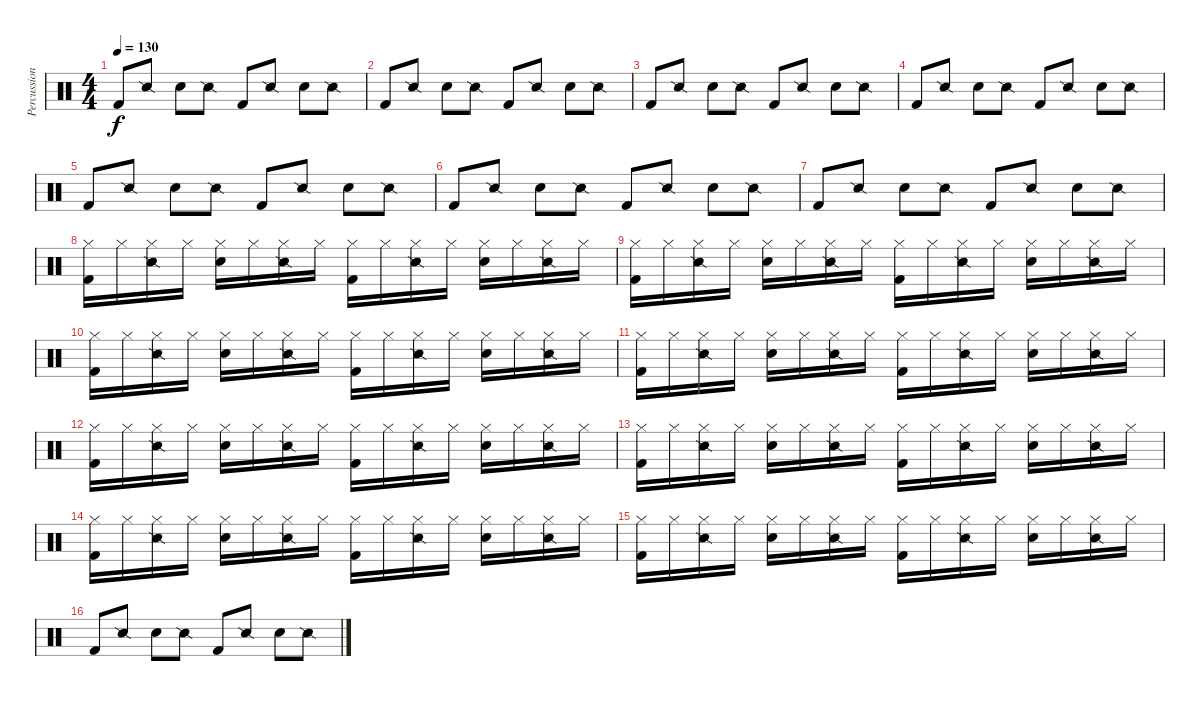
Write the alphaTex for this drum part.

\track ("Percussion" "Percussion") {instrument percussion}
\staff {score}
\articulation defaults
\ts (4 4)
\tempo 130
\clef neutral
\ks c "Kick (hit) 2".8{dy f} "Snare (side stick) 2".8 "Snare (hit) 2".8 "Snare (side stick) 2".8 "Kick (hit) 2".8 "Snare (side stick) 2".8 "Snare (hit) 2".8 "Snare (side stick) 2".8
|
"Kick (hit) 2".8 "Snare (side stick) 2".8 "Snare (hit) 2".8 "Snare (side stick) 2".8 "Kick (hit) 2".8 "Snare (side stick) 2".8 "Snare (hit) 2".8 "Snare (side stick) 2".8 |
"Kick (hit) 2".8 "Snare (side stick) 2".8 "Snare (hit) 2".8 "Snare (side stick) 2".8 "Kick (hit) 2".8 "Snare (side stick) 2".8 "Snare (hit) 2".8 "Snare (side stick) 2".8 |
"Kick (hit) 2".8 "Snare (side stick) 2".8 "Snare (hit) 2".8 "Snare (side stick) 2".8 "Kick (hit) 2".8 "Snare (side stick) 2".8 "Snare (hit) 2".8 "Snare (side stick) 2".8 |
"Kick (hit) 2".8 "Snare (side stick) 2".8 "Snare (hit) 2".8 "Snare (side stick) 2".8 "Kick (hit) 2".8 "Snare (side stick) 2".8 "Snare (hit) 2".8 "Snare (side stick) 2".8 |
"Kick (hit) 2".8 "Snare (side stick) 2".8 "Snare (hit) 2".8 "Snare (side stick) 2".8 "Kick (hit) 2".8 "Snare (side stick) 2".8 "Snare (hit) 2".8 "Snare (side stick) 2".8 |
"Kick (hit) 2".8 "Snare (side stick) 2".8 "Snare (hit) 2".8 "Snare (side stick) 2".8 "Kick (hit) 2".8 "Snare (side stick) 2".8 "Snare (hit) 2".8 "Snare (side stick) 2".8 |
("Hi-Hat (closed)" "Kick (hit) 2").16 "Hi-Hat (closed)".16 ("Hi-Hat (closed)" "Snare (side stick) 2").16 "Hi-Hat (closed)".16 ("Hi-Hat (closed)" "Snare (hit) 2").16 "Hi-Hat (closed)".16 ("Hi-Hat (closed)" "Snare (side stick) 2").16 "Hi-Hat (closed)".16 ("Hi-Hat (closed)" "Kick (hit) 2").16 "Hi-Hat (closed)".16 ("Hi-Hat (closed)" "Snare (side stick) 2").16 "Hi-Hat (closed)".16 ("Hi-Hat (closed)" "Snare (hit) 2").16 "Hi-Hat (closed)".16 ("Hi-Hat (closed)" "Snare (side stick) 2").16 "Hi-Hat (closed)".16 |
("Hi-Hat (closed)" "Kick (hit) 2").16 "Hi-Hat (closed)".16 ("Hi-Hat (closed)" "Snare (side stick) 2").16 "Hi-Hat (closed)".16 ("Hi-Hat (closed)" "Snare (hit) 2").16 "Hi-Hat (closed)".16 ("Hi-Hat (closed)" "Snare (side stick) 2").16 "Hi-Hat (closed)".16 ("Hi-Hat (closed)" "Kick (hit) 2").16 "Hi-Hat (closed)".16 ("Hi-Hat (closed)" "Snare (side stick) 2").16 "Hi-Hat (closed)".16 ("Hi-Hat (closed)" "Snare (hit) 2").16 "Hi-Hat (closed)".16 ("Hi-Hat (closed)" "Snare (side stick) 2").16 "Hi-Hat (closed)".16 |
("Hi-Hat (closed)" "Kick (hit) 2").16 "Hi-Hat (closed)".16 ("Hi-Hat (closed)" "Snare (side stick) 2").16 "Hi-Hat (closed)".16 ("Hi-Hat (closed)" "Snare (hit) 2").16 "Hi-Hat (closed)".16 ("Hi-Hat (closed)" "Snare (side stick) 2").16 "Hi-Hat (closed)".16 ("Hi-Hat (closed)" "Kick (hit) 2").16 "Hi-Hat (closed)".16 ("Hi-Hat (closed)" "Snare (side stick) 2").16 "Hi-Hat (closed)".16 ("Hi-Hat (closed)" "Snare (hit) 2").16 "Hi-Hat (closed)".16 ("Hi-Hat (closed)" "Snare (side stick) 2").16 "Hi-Hat (closed)".16 |
("Hi-Hat (closed)" "Kick (hit) 2").16 "Hi-Hat (closed)".16 ("Hi-Hat (closed)" "Snare (side stick) 2").16 "Hi-Hat (closed)".16 ("Hi-Hat (closed)" "Snare (hit) 2").16 "Hi-Hat (closed)".16 ("Hi-Hat (closed)" "Snare (side stick) 2").16 "Hi-Hat (closed)".16 ("Hi-Hat (closed)" "Kick (hit) 2").16 "Hi-Hat (closed)".16 ("Hi-Hat (closed)" "Snare (side stick) 2").16 "Hi-Hat (closed)".16 ("Hi-Hat (closed)" "Snare (hit) 2").16 "Hi-Hat (closed)".16 ("Hi-Hat (closed)" "Snare (side stick) 2").16 "Hi-Hat (closed)".16 |
("Hi-Hat (closed)" "Kick (hit) 2").16 "Hi-Hat (closed)".16 ("Hi-Hat (closed)" "Snare (side stick) 2").16 "Hi-Hat (closed)".16 ("Hi-Hat (closed)" "Snare (hit) 2").16 "Hi-Hat (closed)".16 ("Hi-Hat (closed)" "Snare (side stick) 2").16 "Hi-Hat (closed)".16 ("Hi-Hat (closed)" "Kick (hit) 2").16 "Hi-Hat (closed)".16 ("Hi-Hat (closed)" "Snare (side stick) 2").16 "Hi-Hat (closed)".16 ("Hi-Hat (closed)" "Snare (hit) 2").16 "Hi-Hat (closed)".16 ("Hi-Hat (closed)" "Snare (side stick) 2").16 "Hi-Hat (closed)".16 |
("Hi-Hat (closed)" "Kick (hit) 2").16 "Hi-Hat (closed)".16 ("Hi-Hat (closed)" "Snare (side stick) 2").16 "Hi-Hat (closed)".16 ("Hi-Hat (closed)" "Snare (hit) 2").16 "Hi-Hat (closed)".16 ("Hi-Hat (closed)" "Snare (side stick) 2").16 "Hi-Hat (closed)".16 ("Hi-Hat (closed)" "Kick (hit) 2").16 "Hi-Hat (closed)".16 ("Hi-Hat (closed)" "Snare (side stick) 2").16 "Hi-Hat (closed)".16 ("Hi-Hat (closed)" "Snare (hit) 2").16 "Hi-Hat (closed)".16 ("Hi-Hat (closed)" "Snare (side stick) 2").16 "Hi-Hat (closed)".16 |
("Hi-Hat (closed)" "Kick (hit) 2").16 "Hi-Hat (closed)".16 ("Hi-Hat (closed)" "Snare (side stick) 2").16 "Hi-Hat (closed)".16 ("Hi-Hat (closed)" "Snare (hit) 2").16 "Hi-Hat (closed)".16 ("Hi-Hat (closed)" "Snare (side stick) 2").16 "Hi-Hat (closed)".16 ("Hi-Hat (closed)" "Kick (hit) 2").16 "Hi-Hat (closed)".16 ("Hi-Hat (closed)" "Snare (side stick) 2").16 "Hi-Hat (closed)".16 ("Hi-Hat (closed)" "Snare (hit) 2").16 "Hi-Hat (closed)".16 ("Hi-Hat (closed)" "Snare (side stick) 2").16 "Hi-Hat (closed)".16 |
("Hi-Hat (closed)" "Kick (hit) 2").16 "Hi-Hat (closed)".16 ("Hi-Hat (closed)" "Snare (side stick) 2").16 "Hi-Hat (closed)".16 ("Hi-Hat (closed)" "Snare (hit) 2").16 "Hi-Hat (closed)".16 ("Hi-Hat (closed)" "Snare (side stick) 2").16 "Hi-Hat (closed)".16 ("Hi-Hat (closed)" "Kick (hit) 2").16 "Hi-Hat (closed)".16 ("Hi-Hat (closed)" "Snare (side stick) 2").16 "Hi-Hat (closed)".16 ("Hi-Hat (closed)" "Snare (hit) 2").16 "Hi-Hat (closed)".16 ("Hi-Hat (closed)" "Snare (side stick) 2").16 "Hi-Hat (closed)".16 |
"Kick (hit) 2".8 "Snare (side stick) 2".8 "Snare (hit) 2".8 "Snare (side stick) 2".8 "Kick (hit) 2".8 "Snare (side stick) 2".8 "Snare (hit) 2".8 "Snare (side stick) 2".8
